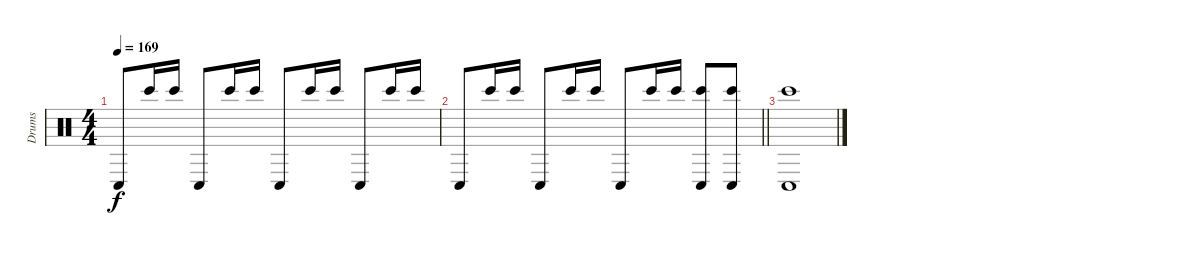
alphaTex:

\track ("Drums" "Drums") {instrument percussion}
\staff
\articulation defaults
\ts (4 4)
\tempo 169
\clef neutral
\ks c "Conga low (hit)".8{dy f} "Bongo High (hit)".16 "Bongo High (hit)".16 "Conga low (hit)".8 "Bongo High (hit)".16 "Bongo High (hit)".16 "Conga low (hit)".8 "Bongo High (hit)".16 "Bongo High (hit)".16 "Conga low (hit)".8 "Bongo High (hit)".16 "Bongo High (hit)".16
|
\barLineRight lightlight "Conga low (hit)".8 "Bongo High (hit)".16 "Bongo High (hit)".16 "Conga low (hit)".8 "Bongo High (hit)".16 "Bongo High (hit)".16 "Conga low (hit)".8 "Bongo High (hit)".16 "Bongo High (hit)".16
("Bongo High (hit)" "Conga low (hit)").8 ("Bongo High (hit)" "Conga low (hit)").8 |
("Bongo High (hit)" "Conga low (hit)").1
